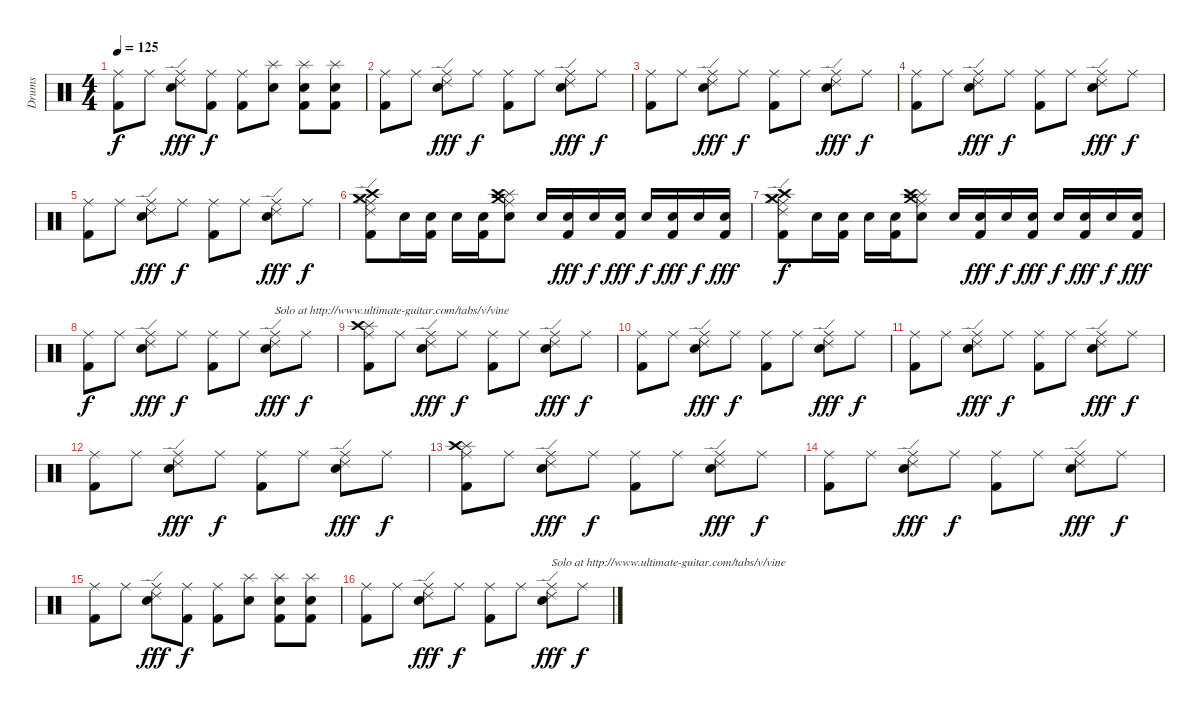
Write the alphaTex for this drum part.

\track ("Drums" "Drums") {instrument percussion}
\staff {score}
\articulation defaults
\ts (4 4)
\tempo 125
\clef neutral
\ks c
("Ride (middle)" "Kick (hit) 2").8{dy f} "Ride (middle)".8 ("Ride (middle)" "Electric Snare (hit)" "Ride (edge) 2").8{dy fff} ("Ride (middle)" "Kick (hit) 2").8{dy f} ("Ride (middle)" "Kick (hit) 2").8 ("Splash (hit)" "Electric Snare (hit)").8 ("Splash (hit)" "Electric Snare (hit)" "Kick (hit) 2").8 ("Splash (hit)" "Electric Snare (hit)" "Kick (hit) 2").8 |
("Ride (middle)" "Kick (hit) 2").8 "Ride (middle)".8 ("Ride (middle)" "Electric Snare (hit)" "Ride (edge) 2").8{dy fff} "Ride (middle)".8{dy f} ("Ride (middle)" "Kick (hit) 2").8 "Ride (middle)".8 ("Ride (middle)" "Electric Snare (hit)" "Ride (edge) 2").8{dy fff} "Ride (middle)".8{dy f} |
("Ride (middle)" "Kick (hit) 2").8 "Ride (middle)".8 ("Ride (middle)" "Electric Snare (hit)" "Ride (edge) 2").8{dy fff} "Ride (middle)".8{dy f} ("Ride (middle)" "Kick (hit) 2").8 "Ride (middle)".8 ("Ride (middle)" "Electric Snare (hit)" "Ride (edge) 2").8{dy fff} "Ride (middle)".8{dy f} |
("Ride (middle)" "Kick (hit) 2").8 "Ride (middle)".8 ("Ride (middle)" "Electric Snare (hit)" "Ride (edge) 2").8{dy fff} "Ride (middle)".8{dy f} ("Ride (middle)" "Kick (hit) 2").8 "Ride (middle)".8 ("Ride (middle)" "Electric Snare (hit)" "Ride (edge) 2").8{dy fff} "Ride (middle)".8{dy f} |
("Ride (middle)" "Kick (hit) 2").8 "Ride (middle)".8 ("Ride (middle)" "Electric Snare (hit)" "Ride (edge) 2").8{dy fff} "Ride (middle)".8{dy f} ("Ride (middle)" "Kick (hit) 2").8 "Ride (middle)".8 ("Ride (middle)" "Electric Snare (hit)" "Ride (edge) 2").8{dy fff} "Ride (middle)".8{dy f} |
("Kick (hit) 2" "Ride (middle)" "Ride (edge) 2" "Crash medium (hit)" "Hi-Hat (closed)" "Crash high (hit)").8 "Snare (hit) 2".16 ("Snare (hit) 2" "Kick (hit) 2").16 "Snare (hit) 2".16 ("Snare (hit) 2" "Kick (hit) 2").16 ("Splash (hit)" "Ride (middle)" "Snare (hit)" "Crash medium (hit)" "Crash high (hit)").8 "Snare (hit) 2".16 ("Snare (hit) 2" "Kick (hit) 2").16{dy fff} "Snare (hit) 2".16{dy f} ("Snare (hit) 2" "Kick (hit) 2").16{dy fff} "Snare (hit) 2".16{dy f} ("Snare (hit) 2" "Kick (hit) 2").16{dy fff} "Snare (hit) 2".16{dy f} ("Snare (hit) 2" "Kick (hit) 2").16{dy fff} |
("Kick (hit) 2" "Ride (middle)" "Ride (edge) 2" "Crash medium (hit)" "Hi-Hat (closed)" "Crash high (hit)").8{dy f} "Snare (hit) 2".16 ("Snare (hit) 2" "Kick (hit) 2").16 "Snare (hit) 2".16 ("Snare (hit) 2" "Kick (hit) 2").16 ("Splash (hit)" "Ride (middle)" "Snare (hit)" "Crash medium (hit)" "Crash high (hit)").8 "Snare (hit) 2".16 ("Snare (hit) 2" "Kick (hit) 2").16{dy fff} "Snare (hit) 2".16{dy f} ("Snare (hit) 2" "Kick (hit) 2").16{dy fff} "Snare (hit) 2".16{dy f} ("Snare (hit) 2" "Kick (hit) 2").16{dy fff} "Snare (hit) 2".16{dy f} ("Snare (hit) 2" "Kick (hit) 2").16{dy fff} |
("Ride (middle)" "Kick (hit) 2").8{dy f} "Ride (middle)".8 ("Ride (middle)" "Electric Snare (hit)" "Ride (edge) 2").8{dy fff} "Ride (middle)".8{dy f} ("Ride (middle)" "Kick (hit) 2").8 "Ride (middle)".8 ("Ride (middle)" "Electric Snare (hit)" "Ride (edge) 2").8{txt "Solo at http://www.ultimate-guitar.com/tabs/v/vine" dy fff} "Ride (middle)".8{dy f} |
("Ride (middle)" "Splash (hit)" "Crash high (hit)" "Kick (hit) 2").8 "Ride (middle)".8 ("Ride (middle)" "Electric Snare (hit)" "Ride (edge) 2").8{dy fff} "Ride (middle)".8{dy f} ("Ride (middle)" "Kick (hit) 2").8 "Ride (middle)".8 ("Ride (middle)" "Electric Snare (hit)" "Ride (edge) 2").8{dy fff} "Ride (middle)".8{dy f} |
("Ride (middle)" "Kick (hit) 2").8 "Ride (middle)".8 ("Ride (middle)" "Electric Snare (hit)" "Ride (edge) 2").8{dy fff} "Ride (middle)".8{dy f} ("Ride (middle)" "Kick (hit) 2").8 "Ride (middle)".8 ("Ride (middle)" "Electric Snare (hit)" "Ride (edge) 2").8{dy fff} "Ride (middle)".8{dy f} |
("Ride (middle)" "Kick (hit) 2").8 "Ride (middle)".8 ("Ride (middle)" "Electric Snare (hit)" "Ride (edge) 2").8{dy fff} "Ride (middle)".8{dy f} ("Ride (middle)" "Kick (hit) 2").8 "Ride (middle)".8 ("Ride (middle)" "Electric Snare (hit)" "Ride (edge) 2").8{dy fff} "Ride (middle)".8{dy f} |
("Ride (middle)" "Kick (hit) 2").8 "Ride (middle)".8 ("Ride (middle)" "Electric Snare (hit)" "Ride (edge) 2").8{dy fff} "Ride (middle)".8{dy f} ("Ride (middle)" "Kick (hit) 2").8 "Ride (middle)".8 ("Ride (middle)" "Electric Snare (hit)" "Ride (edge) 2").8{dy fff} "Ride (middle)".8{dy f} |
("Ride (middle)" "Splash (hit)" "Crash high (hit)" "Kick (hit) 2").8 "Ride (middle)".8 ("Ride (middle)" "Electric Snare (hit)" "Ride (edge) 2").8{dy fff} "Ride (middle)".8{dy f} ("Ride (middle)" "Kick (hit) 2").8 "Ride (middle)".8 ("Ride (middle)" "Electric Snare (hit)" "Ride (edge) 2").8{dy fff} "Ride (middle)".8{dy f} |
("Ride (middle)" "Kick (hit) 2").8 "Ride (middle)".8 ("Ride (middle)" "Electric Snare (hit)" "Ride (edge) 2").8{dy fff} "Ride (middle)".8{dy f} ("Ride (middle)" "Kick (hit) 2").8 "Ride (middle)".8 ("Ride (middle)" "Electric Snare (hit)" "Ride (edge) 2").8{dy fff} "Ride (middle)".8{dy f} |
("Ride (middle)" "Kick (hit) 2").8 "Ride (middle)".8 ("Ride (middle)" "Electric Snare (hit)" "Ride (edge) 2").8{dy fff} ("Ride (middle)" "Kick (hit) 2").8{dy f} ("Ride (middle)" "Kick (hit) 2").8 ("Splash (hit)" "Electric Snare (hit)").8 ("Splash (hit)" "Electric Snare (hit)" "Kick (hit) 2").8 ("Splash (hit)" "Electric Snare (hit)" "Kick (hit) 2").8 |
("Ride (middle)" "Kick (hit) 2").8 "Ride (middle)".8 ("Ride (middle)" "Electric Snare (hit)" "Ride (edge) 2").8{dy fff} "Ride (middle)".8{dy f} ("Ride (middle)" "Kick (hit) 2").8 "Ride (middle)".8 ("Ride (middle)" "Electric Snare (hit)" "Ride (edge) 2").8{txt "Solo at http://www.ultimate-guitar.com/tabs/v/vine" dy fff} "Ride (middle)".8{dy f}
